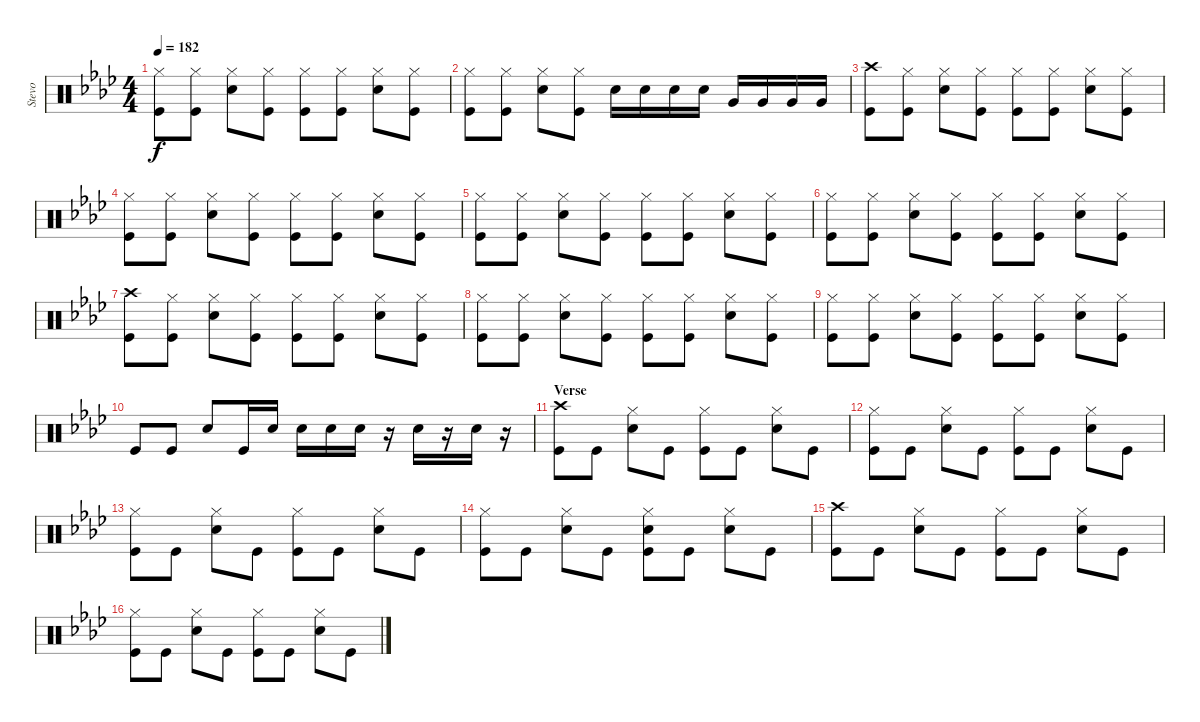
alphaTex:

\track ("Stevo" "Stevo") {instrument percussion}
\staff {score}
\articulation defaults
\ts (4 4)
\tempo 182
\clef neutral
\ks ab
("Hi-Hat (closed)" "Kick (hit)").8{dy f} ("Hi-Hat (closed)" "Kick (hit)").8 ("Hi-Hat (closed)" "Snare (hit) 2").8 ("Hi-Hat (closed)" "Kick (hit)").8 ("Hi-Hat (closed)" "Kick (hit)").8 ("Hi-Hat (closed)" "Kick (hit)").8 ("Hi-Hat (closed)" "Snare (hit) 2").8 ("Hi-Hat (closed)" "Kick (hit)").8 |
("Hi-Hat (closed)" "Kick (hit)").8 ("Hi-Hat (closed)" "Kick (hit)").8 ("Hi-Hat (closed)" "Snare (hit) 2").8 ("Hi-Hat (closed)" "Kick (hit)").8 "Snare (hit) 2".16 "Snare (hit) 2".16 "Snare (hit) 2".16 "Snare (hit) 2".16 "Very Low Tom (hit)".16 "Very Low Tom (hit)".16 "Very Low Tom (hit)".16 "Very Low Tom (hit)".16 |
\section ("" "")
("Crash high (hit)" "Kick (hit)").8 ("Hi-Hat (closed)" "Kick (hit)").8 ("Hi-Hat (closed)" "Snare (hit) 2").8 ("Hi-Hat (closed)" "Kick (hit)").8 ("Hi-Hat (closed)" "Kick (hit)").8 ("Hi-Hat (closed)" "Kick (hit)").8 ("Hi-Hat (closed)" "Snare (hit) 2").8 ("Hi-Hat (closed)" "Kick (hit)").8 |
("Hi-Hat (closed)" "Kick (hit)").8 ("Hi-Hat (closed)" "Kick (hit)").8 ("Hi-Hat (closed)" "Snare (hit) 2").8 ("Hi-Hat (closed)" "Kick (hit)").8 ("Hi-Hat (closed)" "Kick (hit)").8 ("Hi-Hat (closed)" "Kick (hit)").8 ("Hi-Hat (closed)" "Snare (hit) 2").8 ("Hi-Hat (closed)" "Kick (hit)").8 |
("Hi-Hat (closed)" "Kick (hit)").8 ("Hi-Hat (closed)" "Kick (hit)").8 ("Hi-Hat (closed)" "Snare (hit) 2").8 ("Hi-Hat (closed)" "Kick (hit)").8 ("Hi-Hat (closed)" "Kick (hit)").8 ("Hi-Hat (closed)" "Kick (hit)").8 ("Hi-Hat (closed)" "Snare (hit) 2").8 ("Hi-Hat (closed)" "Kick (hit)").8 |
("Hi-Hat (closed)" "Kick (hit)").8 ("Hi-Hat (closed)" "Kick (hit)").8 ("Hi-Hat (closed)" "Snare (hit) 2").8 ("Hi-Hat (closed)" "Kick (hit)").8 ("Hi-Hat (closed)" "Kick (hit)").8 ("Hi-Hat (closed)" "Kick (hit)").8 ("Hi-Hat (closed)" "Snare (hit) 2").8 ("Hi-Hat (closed)" "Kick (hit)").8 |
("Crash high (hit)" "Kick (hit)").8 ("Hi-Hat (closed)" "Kick (hit)").8 ("Hi-Hat (closed)" "Snare (hit) 2").8 ("Hi-Hat (closed)" "Kick (hit)").8 ("Hi-Hat (closed)" "Kick (hit)").8 ("Hi-Hat (closed)" "Kick (hit)").8 ("Hi-Hat (closed)" "Snare (hit) 2").8 ("Hi-Hat (closed)" "Kick (hit)").8 |
("Hi-Hat (closed)" "Kick (hit)").8 ("Hi-Hat (closed)" "Kick (hit)").8 ("Hi-Hat (closed)" "Snare (hit) 2").8 ("Hi-Hat (closed)" "Kick (hit)").8 ("Hi-Hat (closed)" "Kick (hit)").8 ("Hi-Hat (closed)" "Kick (hit)").8 ("Hi-Hat (closed)" "Snare (hit) 2").8 ("Hi-Hat (closed)" "Kick (hit)").8 |
("Hi-Hat (closed)" "Kick (hit)").8 ("Hi-Hat (closed)" "Kick (hit)").8 ("Hi-Hat (closed)" "Snare (hit) 2").8 ("Hi-Hat (closed)" "Kick (hit)").8 ("Hi-Hat (closed)" "Kick (hit)").8 ("Hi-Hat (closed)" "Kick (hit)").8 ("Hi-Hat (closed)" "Snare (hit) 2").8 ("Hi-Hat (closed)" "Kick (hit)").8 |
"Kick (hit)".8 "Kick (hit)".8 "Snare (hit) 2".8 "Kick (hit)".16 "Snare (hit) 2".16 "Snare (hit) 2".16 "Snare (hit) 2".16 "Snare (hit) 2".16 r.16 "Snare (hit) 2".16 r.16 "Snare (hit) 2".16 r.16 |
\section ("" "Verse")
("Crash high (hit)" "Kick (hit)").8 "Kick (hit)".8 ("Hi-Hat (closed)" "Snare (hit) 2").8 "Kick (hit)".8 ("Hi-Hat (closed)" "Kick (hit)").8 "Kick (hit)".8 ("Hi-Hat (closed)" "Snare (hit) 2").8 "Kick (hit)".8 |
("Hi-Hat (closed)" "Kick (hit)").8 "Kick (hit)".8 ("Hi-Hat (closed)" "Snare (hit) 2").8 "Kick (hit)".8 ("Hi-Hat (closed)" "Kick (hit)").8 "Kick (hit)".8 ("Hi-Hat (closed)" "Snare (hit) 2").8 "Kick (hit)".8 |
("Hi-Hat (closed)" "Kick (hit)").8 "Kick (hit)".8 ("Hi-Hat (closed)" "Snare (hit) 2").8 "Kick (hit)".8 ("Hi-Hat (closed)" "Kick (hit)").8 "Kick (hit)".8 ("Hi-Hat (closed)" "Snare (hit) 2").8 "Kick (hit)".8 |
("Hi-Hat (closed)" "Kick (hit)").8 "Kick (hit)".8 ("Hi-Hat (closed)" "Snare (hit) 2").8 "Kick (hit)".8 ("Hi-Hat (closed)" "Snare (hit) 2" "Kick (hit)").8 "Kick (hit)".8 ("Hi-Hat (closed)" "Snare (hit) 2").8 "Kick (hit)".8 |
("Crash high (hit)" "Kick (hit)").8 "Kick (hit)".8 ("Hi-Hat (closed)" "Snare (hit) 2").8 "Kick (hit)".8 ("Hi-Hat (closed)" "Kick (hit)").8 "Kick (hit)".8 ("Hi-Hat (closed)" "Snare (hit) 2").8 "Kick (hit)".8 |
("Hi-Hat (closed)" "Kick (hit)").8 "Kick (hit)".8 ("Hi-Hat (closed)" "Snare (hit) 2").8 "Kick (hit)".8 ("Hi-Hat (closed)" "Kick (hit)").8 "Kick (hit)".8 ("Hi-Hat (closed)" "Snare (hit) 2").8 "Kick (hit)".8
